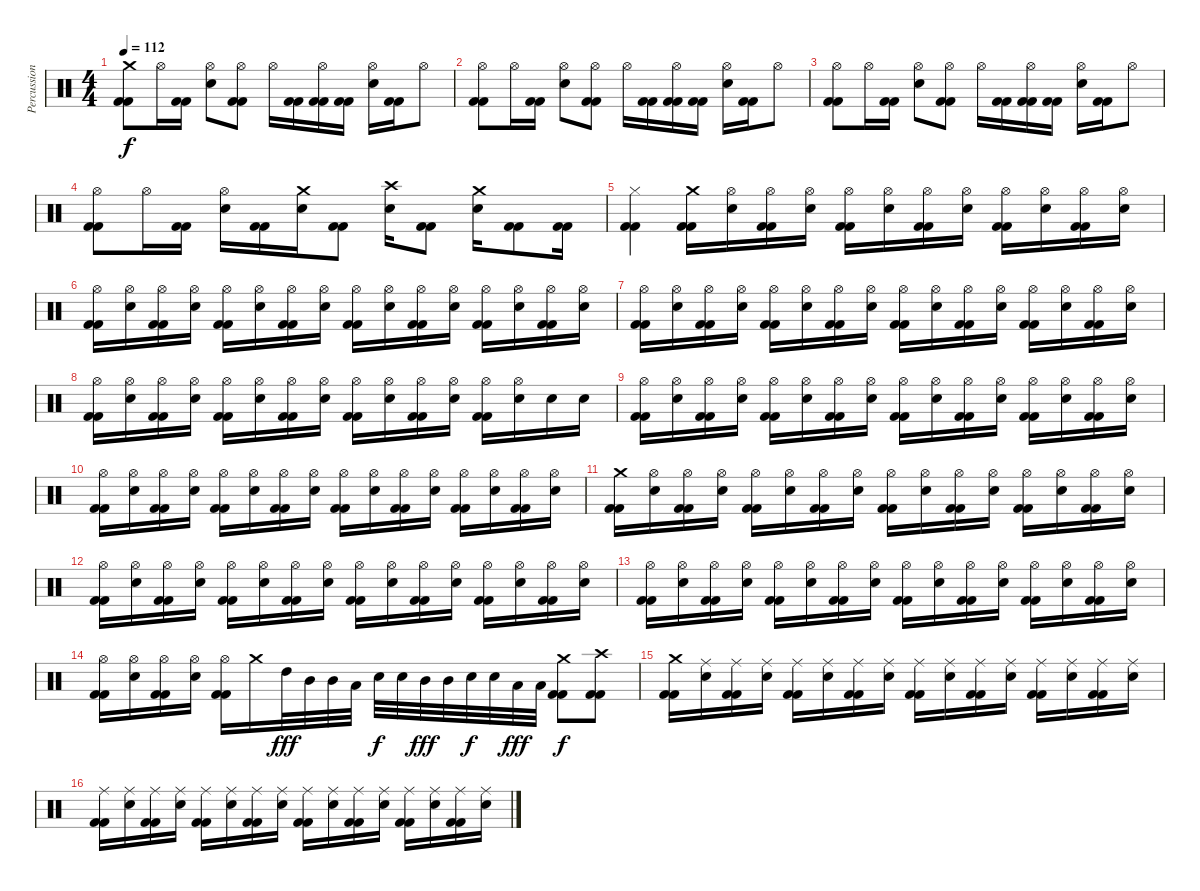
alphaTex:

\track ("Percussion" "Percussion") {instrument percussion}
\staff {score}
\articulation defaults
\ts (4 4)
\tempo 112
\clef neutral
\ks c
("Kick (hit) 2" "Kick (hit) 2" "Crash medium (hit)").8{dy f} "Hi-Hat (open)".16 ("Kick (hit) 2" "Kick (hit) 2").16 ("Hi-Hat (open)" "Electric Snare (hit)").8 ("Kick (hit) 2" "Kick (hit) 2" "Hi-Hat (open)").8 "Hi-Hat (open)".16 ("Kick (hit) 2" "Kick (hit) 2").16 ("Kick (hit) 2" "Kick (hit) 2" "Hi-Hat (open)").16 ("Kick (hit) 2" "Kick (hit) 2").16 ("Hi-Hat (open)" "Electric Snare (hit)").16 ("Kick (hit) 2" "Kick (hit) 2").16 "Hi-Hat (open)".8 |
("Kick (hit) 2" "Kick (hit) 2" "Hi-Hat (open)").8 "Hi-Hat (open)".16 ("Kick (hit) 2" "Kick (hit) 2").16 ("Hi-Hat (open)" "Electric Snare (hit)").8 ("Kick (hit) 2" "Kick (hit) 2" "Hi-Hat (open)").8 "Hi-Hat (open)".16 ("Kick (hit) 2" "Kick (hit) 2").16 ("Kick (hit) 2" "Kick (hit) 2" "Hi-Hat (open)").16 ("Kick (hit) 2" "Kick (hit) 2").16 ("Hi-Hat (open)" "Electric Snare (hit)").16 ("Kick (hit) 2" "Kick (hit) 2").16 "Hi-Hat (open)".8 |
("Kick (hit) 2" "Kick (hit) 2" "Hi-Hat (open)").8 "Hi-Hat (open)".16 ("Kick (hit) 2" "Kick (hit) 2").16 ("Hi-Hat (open)" "Electric Snare (hit)").8 ("Kick (hit) 2" "Kick (hit) 2" "Hi-Hat (open)").8 "Hi-Hat (open)".16 ("Kick (hit) 2" "Kick (hit) 2").16 ("Kick (hit) 2" "Kick (hit) 2" "Hi-Hat (open)").16 ("Kick (hit) 2" "Kick (hit) 2").16 ("Hi-Hat (open)" "Electric Snare (hit)").16 ("Kick (hit) 2" "Kick (hit) 2").16 "Hi-Hat (open)".8 |
("Kick (hit) 2" "Kick (hit) 2" "Hi-Hat (open)").8 "Hi-Hat (open)".16 ("Kick (hit) 2" "Kick (hit) 2").16 ("Hi-Hat (open)" "Electric Snare (hit)").16 ("Kick (hit) 2" "Kick (hit) 2").16 ("Electric Snare (hit)" "Crash medium (hit)").16 ("Kick (hit) 2" "Kick (hit) 2").8 ("Electric Snare (hit)" "Crash high (hit)").16 ("Kick (hit) 2" "Kick (hit) 2").8 ("Electric Snare (hit)" "Crash medium (hit)").16 ("Kick (hit) 2" "Kick (hit) 2").8 ("Kick (hit) 2" "Kick (hit) 2").16 |
("Kick (hit) 2" "Kick (hit) 2" "Hi-Hat (closed)").4 ("Kick (hit) 2" "Kick (hit) 2" "Crash medium (hit)").16 ("Hi-Hat (open)" "Electric Snare (hit)").16 ("Kick (hit) 2" "Kick (hit) 2" "Hi-Hat (open)").16 ("Hi-Hat (open)" "Electric Snare (hit)").16 ("Kick (hit) 2" "Kick (hit) 2" "Hi-Hat (open)").16 ("Hi-Hat (open)" "Electric Snare (hit)").16 ("Kick (hit) 2" "Kick (hit) 2" "Hi-Hat (open)").16 ("Hi-Hat (open)" "Electric Snare (hit)").16 ("Kick (hit) 2" "Kick (hit) 2" "Hi-Hat (open)").16 ("Hi-Hat (open)" "Electric Snare (hit)").16 ("Kick (hit) 2" "Kick (hit) 2" "Hi-Hat (open)").16 ("Hi-Hat (open)" "Electric Snare (hit)").16 |
("Kick (hit) 2" "Kick (hit) 2" "Hi-Hat (open)").16 ("Hi-Hat (open)" "Electric Snare (hit)").16 ("Hi-Hat (open)" "Kick (hit) 2" "Kick (hit) 2").16 ("Hi-Hat (open)" "Electric Snare (hit)").16 ("Hi-Hat (open)" "Kick (hit) 2" "Kick (hit) 2").16 ("Hi-Hat (open)" "Electric Snare (hit)").16 ("Hi-Hat (open)" "Kick (hit) 2" "Kick (hit) 2").16 ("Hi-Hat (open)" "Electric Snare (hit)").16 ("Hi-Hat (open)" "Kick (hit) 2" "Kick (hit) 2").16 ("Hi-Hat (open)" "Electric Snare (hit)").16 ("Hi-Hat (open)" "Kick (hit) 2" "Kick (hit) 2").16 ("Hi-Hat (open)" "Electric Snare (hit)").16 ("Hi-Hat (open)" "Kick (hit) 2" "Kick (hit) 2").16 ("Hi-Hat (open)" "Electric Snare (hit)").16 ("Hi-Hat (open)" "Kick (hit) 2" "Kick (hit) 2").16 ("Hi-Hat (open)" "Electric Snare (hit)").16 |
("Kick (hit) 2" "Kick (hit) 2" "Hi-Hat (open)").16 ("Hi-Hat (open)" "Electric Snare (hit)").16 ("Hi-Hat (open)" "Kick (hit) 2" "Kick (hit) 2").16 ("Hi-Hat (open)" "Electric Snare (hit)").16 ("Hi-Hat (open)" "Kick (hit) 2" "Kick (hit) 2").16 ("Hi-Hat (open)" "Electric Snare (hit)").16 ("Hi-Hat (open)" "Kick (hit) 2" "Kick (hit) 2").16 ("Hi-Hat (open)" "Electric Snare (hit)").16 ("Hi-Hat (open)" "Kick (hit) 2" "Kick (hit) 2").16 ("Hi-Hat (open)" "Electric Snare (hit)").16 ("Hi-Hat (open)" "Kick (hit) 2" "Kick (hit) 2").16 ("Hi-Hat (open)" "Electric Snare (hit)").16 ("Hi-Hat (open)" "Kick (hit) 2" "Kick (hit) 2").16 ("Hi-Hat (open)" "Electric Snare (hit)").16 ("Hi-Hat (open)" "Kick (hit) 2" "Kick (hit) 2").16 ("Hi-Hat (open)" "Electric Snare (hit)").16 |
("Kick (hit) 2" "Kick (hit) 2" "Hi-Hat (open)").16 ("Hi-Hat (open)" "Electric Snare (hit)").16 ("Hi-Hat (open)" "Kick (hit) 2" "Kick (hit) 2").16 ("Hi-Hat (open)" "Electric Snare (hit)").16 ("Hi-Hat (open)" "Kick (hit) 2" "Kick (hit) 2").16 ("Hi-Hat (open)" "Electric Snare (hit)").16 ("Hi-Hat (open)" "Kick (hit) 2" "Kick (hit) 2").16 ("Hi-Hat (open)" "Electric Snare (hit)").16 ("Hi-Hat (open)" "Kick (hit) 2" "Kick (hit) 2").16 ("Hi-Hat (open)" "Electric Snare (hit)").16 ("Hi-Hat (open)" "Kick (hit) 2" "Kick (hit) 2").16 ("Hi-Hat (open)" "Electric Snare (hit)").16 ("Hi-Hat (open)" "Kick (hit) 2" "Kick (hit) 2").16 ("Hi-Hat (open)" "Electric Snare (hit)").16 "Electric Snare (hit)".16 "Electric Snare (hit)".16 |
("Kick (hit) 2" "Kick (hit) 2" "Hi-Hat (open)").16 ("Hi-Hat (open)" "Electric Snare (hit)").16 ("Hi-Hat (open)" "Kick (hit) 2" "Kick (hit) 2").16 ("Hi-Hat (open)" "Electric Snare (hit)").16 ("Hi-Hat (open)" "Kick (hit) 2" "Kick (hit) 2").16 ("Hi-Hat (open)" "Electric Snare (hit)").16 ("Hi-Hat (open)" "Kick (hit) 2" "Kick (hit) 2").16 ("Hi-Hat (open)" "Electric Snare (hit)").16 ("Hi-Hat (open)" "Kick (hit) 2" "Kick (hit) 2").16 ("Hi-Hat (open)" "Electric Snare (hit)").16 ("Hi-Hat (open)" "Kick (hit) 2" "Kick (hit) 2").16 ("Hi-Hat (open)" "Electric Snare (hit)").16 ("Hi-Hat (open)" "Kick (hit) 2" "Kick (hit) 2").16 ("Hi-Hat (open)" "Electric Snare (hit)").16 ("Hi-Hat (open)" "Kick (hit) 2" "Kick (hit) 2").16 ("Hi-Hat (open)" "Electric Snare (hit)").16 |
("Kick (hit) 2" "Kick (hit) 2" "Hi-Hat (open)").16 ("Hi-Hat (open)" "Electric Snare (hit)").16 ("Hi-Hat (open)" "Kick (hit) 2" "Kick (hit) 2").16 ("Hi-Hat (open)" "Electric Snare (hit)").16 ("Hi-Hat (open)" "Kick (hit) 2" "Kick (hit) 2").16 ("Hi-Hat (open)" "Electric Snare (hit)").16 ("Hi-Hat (open)" "Kick (hit) 2" "Kick (hit) 2").16 ("Hi-Hat (open)" "Electric Snare (hit)").16 ("Hi-Hat (open)" "Kick (hit) 2" "Kick (hit) 2").16 ("Hi-Hat (open)" "Electric Snare (hit)").16 ("Hi-Hat (open)" "Kick (hit) 2" "Kick (hit) 2").16 ("Hi-Hat (open)" "Electric Snare (hit)").16 ("Hi-Hat (open)" "Kick (hit) 2" "Kick (hit) 2").16 ("Hi-Hat (open)" "Electric Snare (hit)").16 ("Hi-Hat (open)" "Kick (hit) 2" "Kick (hit) 2").16 ("Hi-Hat (open)" "Electric Snare (hit)").16 |
("Kick (hit) 2" "Kick (hit) 2" "Crash medium (hit)").16 ("Hi-Hat (open)" "Electric Snare (hit)").16 ("Hi-Hat (open)" "Kick (hit) 2" "Kick (hit) 2").16 ("Hi-Hat (open)" "Electric Snare (hit)").16 ("Hi-Hat (open)" "Kick (hit) 2" "Kick (hit) 2").16 ("Hi-Hat (open)" "Electric Snare (hit)").16 ("Hi-Hat (open)" "Kick (hit) 2" "Kick (hit) 2").16 ("Hi-Hat (open)" "Electric Snare (hit)").16 ("Hi-Hat (open)" "Kick (hit) 2" "Kick (hit) 2").16 ("Hi-Hat (open)" "Electric Snare (hit)").16 ("Hi-Hat (open)" "Kick (hit) 2" "Kick (hit) 2").16 ("Hi-Hat (open)" "Electric Snare (hit)").16 ("Hi-Hat (open)" "Kick (hit) 2" "Kick (hit) 2").16 ("Hi-Hat (open)" "Electric Snare (hit)").16 ("Hi-Hat (open)" "Kick (hit) 2" "Kick (hit) 2").16 ("Hi-Hat (open)" "Electric Snare (hit)").16 |
("Kick (hit) 2" "Kick (hit) 2" "Hi-Hat (open)").16 ("Hi-Hat (open)" "Electric Snare (hit)").16 ("Hi-Hat (open)" "Kick (hit) 2" "Kick (hit) 2").16 ("Hi-Hat (open)" "Electric Snare (hit)").16 ("Hi-Hat (open)" "Kick (hit) 2" "Kick (hit) 2").16 ("Hi-Hat (open)" "Electric Snare (hit)").16 ("Hi-Hat (open)" "Kick (hit) 2" "Kick (hit) 2").16 ("Hi-Hat (open)" "Electric Snare (hit)").16 ("Hi-Hat (open)" "Kick (hit) 2" "Kick (hit) 2").16 ("Hi-Hat (open)" "Electric Snare (hit)").16 ("Hi-Hat (open)" "Kick (hit) 2" "Kick (hit) 2").16 ("Hi-Hat (open)" "Electric Snare (hit)").16 ("Hi-Hat (open)" "Kick (hit) 2" "Kick (hit) 2").16 ("Hi-Hat (open)" "Electric Snare (hit)").16 ("Hi-Hat (open)" "Kick (hit) 2" "Kick (hit) 2").16 ("Hi-Hat (open)" "Electric Snare (hit)").16 |
("Kick (hit) 2" "Kick (hit) 2" "Hi-Hat (open)").16 ("Hi-Hat (open)" "Electric Snare (hit)").16 ("Hi-Hat (open)" "Kick (hit) 2" "Kick (hit) 2").16 ("Hi-Hat (open)" "Electric Snare (hit)").16 ("Hi-Hat (open)" "Kick (hit) 2" "Kick (hit) 2").16 ("Hi-Hat (open)" "Electric Snare (hit)").16 ("Hi-Hat (open)" "Kick (hit) 2" "Kick (hit) 2").16 ("Hi-Hat (open)" "Electric Snare (hit)").16 ("Hi-Hat (open)" "Kick (hit) 2" "Kick (hit) 2").16 ("Hi-Hat (open)" "Electric Snare (hit)").16 ("Hi-Hat (open)" "Kick (hit) 2" "Kick (hit) 2").16 ("Hi-Hat (open)" "Electric Snare (hit)").16 ("Hi-Hat (open)" "Kick (hit) 2" "Kick (hit) 2").16 ("Hi-Hat (open)" "Electric Snare (hit)").16 ("Hi-Hat (open)" "Kick (hit) 2" "Kick (hit) 2").16 ("Hi-Hat (open)" "Electric Snare (hit)").16 |
("Kick (hit) 2" "Kick (hit) 2" "Hi-Hat (open)").16 ("Hi-Hat (open)" "Electric Snare (hit)").16 ("Hi-Hat (open)" "Kick (hit) 2" "Kick (hit) 2").16 ("Hi-Hat (open)" "Electric Snare (hit)").16 ("Hi-Hat (open)" "Kick (hit) 2" "Kick (hit) 2").16 "Crash medium (hit)".16 "High Tom (hit)".32{dy fff} "Mid Tom (hit)".32 "Mid Tom (hit)".32 "Low Tom (hit)".32 "Electric Snare (hit)".32{dy f} "Electric Snare (hit)".32 "Mid Tom (hit)".32{dy fff} "Mid Tom (hit)".32 "Electric Snare (hit)".32{dy f} "Electric Snare (hit)".32 "Low Tom (hit)".32{dy fff} "Low Tom (hit)".32 ("Kick (hit) 2" "Kick (hit) 2" "Crash medium (hit)").8{dy f} ("Kick (hit) 2" "Kick (hit) 2" "Crash high (hit)").8 |
("Kick (hit) 2" "Kick (hit) 2" "Crash medium (hit)").16 ("Ride (middle)" "Electric Snare (hit)").16 ("Ride (middle)" "Kick (hit) 2" "Kick (hit) 2").16 ("Ride (middle)" "Electric Snare (hit)").16 ("Ride (middle)" "Kick (hit) 2" "Kick (hit) 2").16 ("Ride (middle)" "Electric Snare (hit)").16 ("Ride (middle)" "Kick (hit) 2" "Kick (hit) 2").16 ("Ride (middle)" "Electric Snare (hit)").16 ("Ride (middle)" "Kick (hit) 2" "Kick (hit) 2").16 ("Ride (middle)" "Electric Snare (hit)").16 ("Ride (middle)" "Kick (hit) 2" "Kick (hit) 2").16 ("Ride (middle)" "Electric Snare (hit)").16 ("Ride (middle)" "Kick (hit) 2" "Kick (hit) 2").16 ("Ride (middle)" "Electric Snare (hit)").16 ("Ride (middle)" "Kick (hit) 2" "Kick (hit) 2").16 ("Ride (middle)" "Electric Snare (hit)").16 |
("Kick (hit) 2" "Kick (hit) 2" "Ride (middle)").16 ("Ride (middle)" "Electric Snare (hit)").16 ("Ride (middle)" "Kick (hit) 2" "Kick (hit) 2").16 ("Ride (middle)" "Electric Snare (hit)").16 ("Ride (middle)" "Kick (hit) 2" "Kick (hit) 2").16 ("Ride (middle)" "Electric Snare (hit)").16 ("Ride (middle)" "Kick (hit) 2" "Kick (hit) 2").16 ("Ride (middle)" "Electric Snare (hit)").16 ("Ride (middle)" "Kick (hit) 2" "Kick (hit) 2").16 ("Ride (middle)" "Electric Snare (hit)").16 ("Ride (middle)" "Kick (hit) 2" "Kick (hit) 2").16 ("Ride (middle)" "Electric Snare (hit)").16 ("Ride (middle)" "Kick (hit) 2" "Kick (hit) 2").16 ("Ride (middle)" "Electric Snare (hit)").16 ("Ride (middle)" "Kick (hit) 2" "Kick (hit) 2").16 ("Ride (middle)" "Electric Snare (hit)").16
